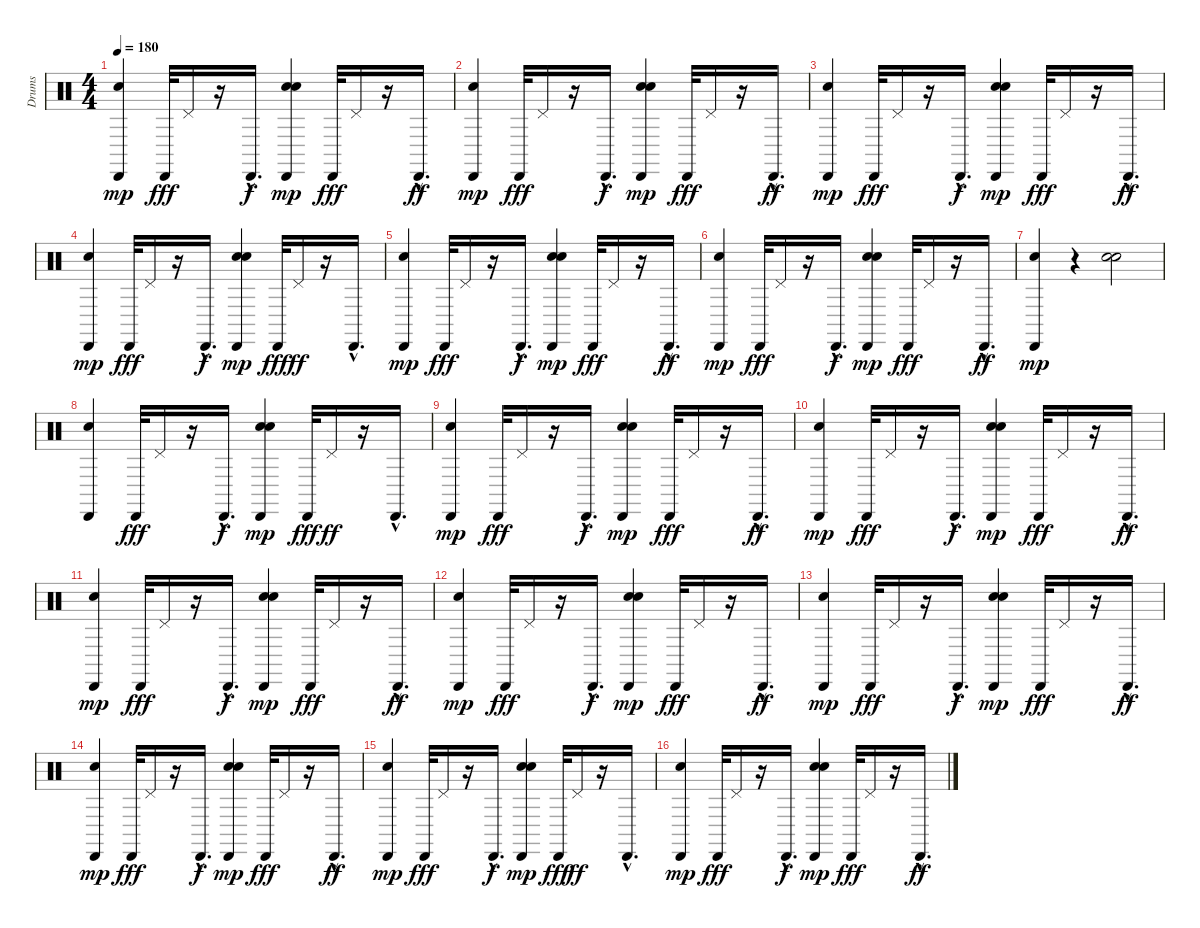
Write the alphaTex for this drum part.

\track ("Drums" "Drums") {instrument percussion}
\staff {score}
\articulation defaults
\ts (4 4)
\tempo 180
\clef neutral
\ks c
("Snare (hit) 2" "Cabasa (hit)").4{dy mp} "Cabasa (hit)".32{dy fff} "Pedal Hi-Hat (hit)".16 r.16 "Cabasa (hit)"{hac}.16{d dy f} ("Snare (hit) 2" "Snare (hit) 2" "Cabasa (hit)").4{dy mp} "Cabasa (hit)".32{dy fff} "Pedal Hi-Hat (hit)".16 r.16 "Cabasa (hit)"{hac}.16{d dy ff} |
("Snare (hit) 2" "Cabasa (hit)").4{dy mp} "Cabasa (hit)".32{dy fff} "Pedal Hi-Hat (hit)".16 r.16 "Cabasa (hit)"{hac}.16{d dy f} ("Snare (hit) 2" "Snare (hit) 2" "Cabasa (hit)").4{dy mp} "Cabasa (hit)".32{dy fff} "Pedal Hi-Hat (hit)".16 r.16 "Cabasa (hit)"{hac}.16{d dy ff} |
("Snare (hit) 2" "Cabasa (hit)").4{dy mp} "Cabasa (hit)".32{dy fff} "Pedal Hi-Hat (hit)".16 r.16 "Cabasa (hit)"{hac}.16{d dy f} ("Snare (hit) 2" "Snare (hit) 2" "Cabasa (hit)").4{dy mp} "Cabasa (hit)".32{dy fff} "Pedal Hi-Hat (hit)".16 r.16 "Cabasa (hit)"{hac}.16{d dy ff} |
("Snare (hit) 2" "Cabasa (hit)").4{dy mp} "Cabasa (hit)".32{dy fff} "Pedal Hi-Hat (hit)".16 r.16 "Cabasa (hit)"{hac}.16{d dy f} ("Snare (hit) 2" "Snare (hit) 2" "Cabasa (hit)").4{dy mp} "Cabasa (hit)".32{dy fff} "Pedal Hi-Hat (hit)".16{dy ff} r.16 "Cabasa (hit)"{hac}.16{d} |
("Snare (hit) 2" "Cabasa (hit)").4{dy mp} "Cabasa (hit)".32{dy fff} "Pedal Hi-Hat (hit)".16 r.16 "Cabasa (hit)"{hac}.16{d dy f} ("Snare (hit) 2" "Snare (hit) 2" "Cabasa (hit)").4{dy mp} "Cabasa (hit)".32{dy fff} "Pedal Hi-Hat (hit)".16 r.16 "Cabasa (hit)"{hac}.16{d dy ff} |
("Snare (hit) 2" "Cabasa (hit)").4{dy mp} "Cabasa (hit)".32{dy fff} "Pedal Hi-Hat (hit)".16 r.16 "Cabasa (hit)"{hac}.16{d dy f} ("Snare (hit) 2" "Snare (hit) 2" "Cabasa (hit)").4{dy mp} "Cabasa (hit)".32{dy fff} "Pedal Hi-Hat (hit)".16 r.16 "Cabasa (hit)"{hac}.16{d dy ff} |
("Snare (hit) 2" "Cabasa (hit)").4{dy mp} r.4 ("Snare (hit) 2" "Snare (hit) 2").2 |
("Snare (hit) 2" "Cabasa (hit)").4 "Cabasa (hit)".32{dy fff} "Pedal Hi-Hat (hit)".16 r.16 "Cabasa (hit)"{hac}.16{d dy f} ("Snare (hit) 2" "Snare (hit) 2" "Cabasa (hit)").4{dy mp} "Cabasa (hit)".32{dy fff} "Pedal Hi-Hat (hit)".16{dy ff} r.16 "Cabasa (hit)"{hac}.16{d} |
("Snare (hit) 2" "Cabasa (hit)").4{dy mp} "Cabasa (hit)".32{dy fff} "Pedal Hi-Hat (hit)".16 r.16 "Cabasa (hit)"{hac}.16{d dy f} ("Snare (hit) 2" "Snare (hit) 2" "Cabasa (hit)").4{dy mp} "Cabasa (hit)".32{dy fff} "Pedal Hi-Hat (hit)".16 r.16 "Cabasa (hit)"{hac}.16{d dy ff} |
("Snare (hit) 2" "Cabasa (hit)").4{dy mp} "Cabasa (hit)".32{dy fff} "Pedal Hi-Hat (hit)".16 r.16 "Cabasa (hit)"{hac}.16{d dy f} ("Snare (hit) 2" "Snare (hit) 2" "Cabasa (hit)").4{dy mp} "Cabasa (hit)".32{dy fff} "Pedal Hi-Hat (hit)".16 r.16 "Cabasa (hit)"{hac}.16{d dy ff} |
("Snare (hit) 2" "Cabasa (hit)").4{dy mp} "Cabasa (hit)".32{dy fff} "Pedal Hi-Hat (hit)".16 r.16 "Cabasa (hit)"{hac}.16{d dy f} ("Snare (hit) 2" "Snare (hit) 2" "Cabasa (hit)").4{dy mp} "Cabasa (hit)".32{dy fff} "Pedal Hi-Hat (hit)".16 r.16 "Cabasa (hit)"{hac}.16{d dy ff} |
("Snare (hit) 2" "Cabasa (hit)").4{dy mp} "Cabasa (hit)".32{dy fff} "Pedal Hi-Hat (hit)".16 r.16 "Cabasa (hit)"{hac}.16{d dy f} ("Snare (hit) 2" "Snare (hit) 2" "Cabasa (hit)").4{dy mp} "Cabasa (hit)".32{dy fff} "Pedal Hi-Hat (hit)".16 r.16 "Cabasa (hit)"{hac}.16{d dy ff} |
("Snare (hit) 2" "Cabasa (hit)").4{dy mp} "Cabasa (hit)".32{dy fff} "Pedal Hi-Hat (hit)".16 r.16 "Cabasa (hit)"{hac}.16{d dy f} ("Snare (hit) 2" "Snare (hit) 2" "Cabasa (hit)").4{dy mp} "Cabasa (hit)".32{dy fff} "Pedal Hi-Hat (hit)".16 r.16 "Cabasa (hit)"{hac}.16{d dy ff} |
("Snare (hit) 2" "Cabasa (hit)").4{dy mp} "Cabasa (hit)".32{dy fff} "Pedal Hi-Hat (hit)".16 r.16 "Cabasa (hit)"{hac}.16{d dy f} ("Snare (hit) 2" "Snare (hit) 2" "Cabasa (hit)").4{dy mp} "Cabasa (hit)".32{dy fff} "Pedal Hi-Hat (hit)".16 r.16 "Cabasa (hit)"{hac}.16{d dy ff} |
("Snare (hit) 2" "Cabasa (hit)").4{dy mp} "Cabasa (hit)".32{dy fff} "Pedal Hi-Hat (hit)".16 r.16 "Cabasa (hit)"{hac}.16{d dy f} ("Snare (hit) 2" "Snare (hit) 2" "Cabasa (hit)").4{dy mp} "Cabasa (hit)".32{dy fff} "Pedal Hi-Hat (hit)".16{dy ff} r.16 "Cabasa (hit)"{hac}.16{d} |
("Snare (hit) 2" "Cabasa (hit)").4{dy mp} "Cabasa (hit)".32{dy fff} "Pedal Hi-Hat (hit)".16 r.16 "Cabasa (hit)"{hac}.16{d dy f} ("Snare (hit) 2" "Snare (hit) 2" "Cabasa (hit)").4{dy mp} "Cabasa (hit)".32{dy fff} "Pedal Hi-Hat (hit)".16 r.16 "Cabasa (hit)"{hac}.16{d dy ff}
